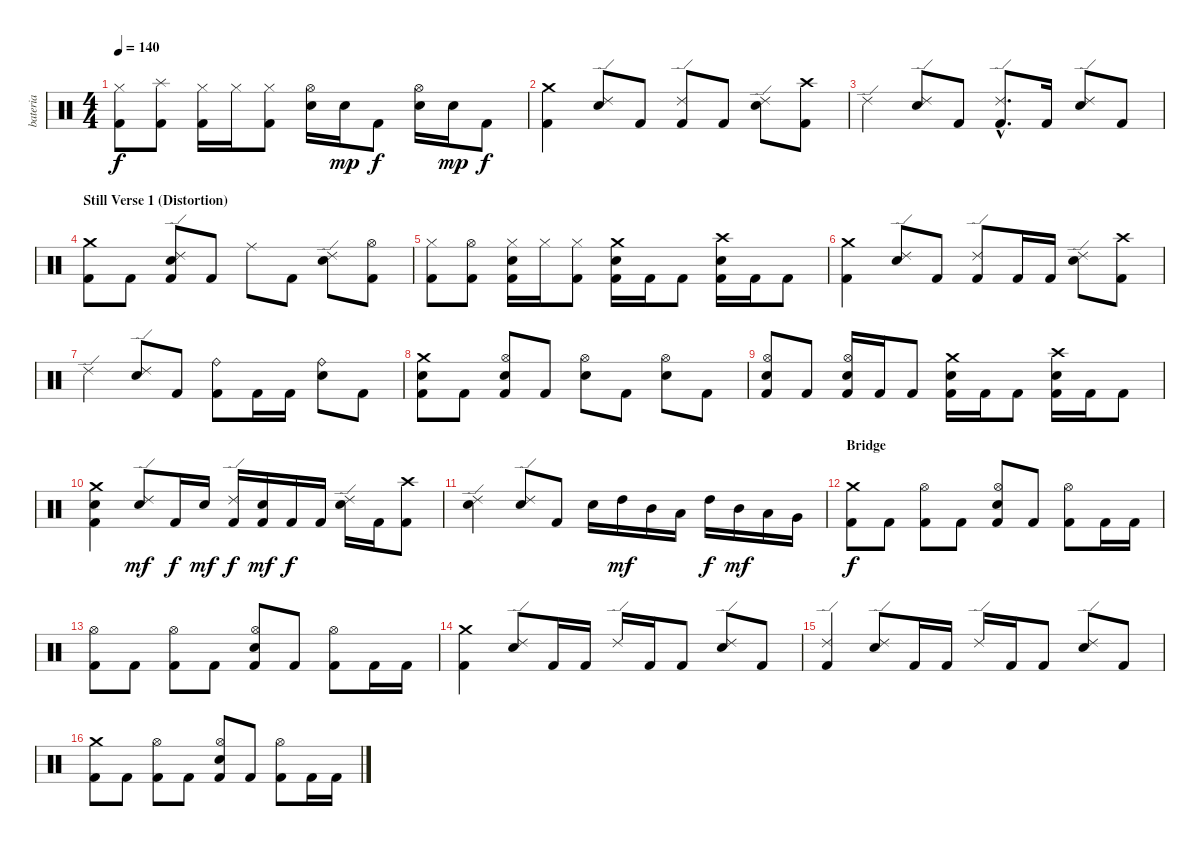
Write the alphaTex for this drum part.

\track ("bateria" "bateria") {instrument percussion}
\staff {score}
\articulation defaults
\ts (4 4)
\tempo 140
\clef neutral
\ks c
("Hi-Hat (closed)" "Kick (hit) 2").8{dy f} ("Splash (hit)" "Kick (hit) 2").8 ("Hi-Hat (closed)" "Kick (hit) 2").16 "Hi-Hat (closed)".16 ("Hi-Hat (closed)" "Kick (hit) 2").8 ("Hi-Hat (open)" "Electric Snare (hit)").16 "Electric Snare (hit)".16{dy mp} "Kick (hit) 2".8{dy f} ("Hi-Hat (open)" "Electric Snare (hit)").16 "Electric Snare (hit)".16{dy mp} "Kick (hit) 2".8{dy f} |
("Crash medium (hit)" "Kick (hit) 2").4 ("Ride (edge) 2" "Electric Snare (hit)").8 "Kick (hit) 2".8 ("Ride (edge) 2" "Kick (hit) 2").8 "Kick (hit) 2".8 ("Ride (edge) 2" "Electric Snare (hit)").8 ("Crash high (hit)" "Kick (hit) 2").8 |
"Ride (edge) 2".4 ("Ride (edge) 2" "Electric Snare (hit)").8 "Kick (hit) 2".8 ("Ride (edge) 2"{hac} "Kick (hit) 2"{hac}).8{d} "Kick (hit) 2".16 ("Ride (edge) 2" "Electric Snare (hit)").8 "Kick (hit) 2".8 |
\section ("" "Still Verse 1 (Distortion)")
("Crash medium (hit)" "Kick (hit) 2").8 "Kick (hit) 2".8 ("Ride (edge) 2" "Electric Snare (hit)" "Kick (hit) 2").8 "Kick (hit) 2".8 "Ride (middle)".8 "Kick (hit) 2".8 ("Ride (edge) 2" "Electric Snare (hit)").8 ("Hi-Hat (open)" "Kick (hit) 2").8 |
("Hi-Hat (closed)" "Kick (hit) 2").8 ("Hi-Hat (open)" "Kick (hit) 2").8 ("Hi-Hat (closed)" "Electric Snare (hit)" "Kick (hit) 2").16 "Hi-Hat (closed)".16 ("Hi-Hat (closed)" "Kick (hit) 2").8 ("Crash medium (hit)" "Electric Snare (hit)" "Kick (hit) 2").16 "Kick (hit) 2".16 "Kick (hit) 2".8 ("Crash high (hit)" "Electric Snare (hit)" "Kick (hit) 2").16 "Kick (hit) 2".16 "Kick (hit) 2".8 |
("Crash medium (hit)" "Kick (hit) 2").4 ("Ride (edge) 2" "Electric Snare (hit)").8 "Kick (hit) 2".8 ("Ride (edge) 2" "Kick (hit) 2").8 "Kick (hit) 2".16 "Kick (hit) 2".16 ("Ride (edge) 2" "Electric Snare (hit)").8 ("Crash high (hit)" "Kick (hit) 2").8 |
"Ride (edge) 2".4 ("Ride (edge) 2" "Electric Snare (hit)").8 "Kick (hit) 2".8 ("Ride (bell)" "Kick (hit) 2").8 "Kick (hit) 2".16 "Kick (hit) 2".16 ("Ride (bell)" "Electric Snare (hit)").8 "Kick (hit) 2".8 |
("Crash medium (hit)" "Electric Snare (hit)" "Kick (hit) 2").8 "Kick (hit) 2".8 ("Hi-Hat (open)" "Electric Snare (hit)" "Kick (hit) 2").8 "Kick (hit) 2".8 ("Hi-Hat (open)" "Electric Snare (hit)").8 "Kick (hit) 2".8 ("Hi-Hat (open)" "Electric Snare (hit)").8 "Kick (hit) 2".8 |
("Hi-Hat (open)" "Electric Snare (hit)" "Kick (hit) 2").8 "Kick (hit) 2".8 ("Hi-Hat (open)" "Electric Snare (hit)" "Kick (hit) 2").16 "Kick (hit) 2".16 "Kick (hit) 2".8 ("Crash medium (hit)" "Electric Snare (hit)" "Kick (hit) 2").16 "Kick (hit) 2".16 "Kick (hit) 2".8 ("Crash high (hit)" "Electric Snare (hit)" "Kick (hit) 2").16 "Kick (hit) 2".16 "Kick (hit) 2".8 |
("Crash medium (hit)" "Electric Snare (hit)" "Kick (hit) 2").4 ("Ride (edge) 2" "Electric Snare (hit)").8{dy mf} "Kick (hit) 2".16{dy f} "Electric Snare (hit)".16{dy mf} ("Ride (edge) 2" "Kick (hit) 2").16{dy f} ("Electric Snare (hit)" "Kick (hit) 2").16{dy mf} "Kick (hit) 2".16{dy f} "Kick (hit) 2".16 ("Ride (edge) 2" "Electric Snare (hit)").16 "Kick (hit) 2".16 ("Crash high (hit)" "Kick (hit) 2").8 |
("Ride (edge) 2" "Electric Snare (hit)").4 ("Ride (edge) 2" "Electric Snare (hit)").8 "Kick (hit) 2".8 "Electric Snare (hit)".16 "High Tom (hit)".16{dy mf} "Mid Tom (hit)".16 "Low Tom (hit)".16 "High Tom (hit)".16{dy f} "Mid Tom (hit)".16{dy mf} "Low Tom (hit)".16 "Very Low Tom (hit)".16 |
\section ("" "Bridge")
("Crash medium (hit)" "Kick (hit) 2").8{dy f} "Kick (hit) 2".8 ("Hi-Hat (open)" "Kick (hit) 2").8 "Kick (hit) 2".8 ("Hi-Hat (open)" "Electric Snare (hit)" "Kick (hit) 2").8 "Kick (hit) 2".8 ("Hi-Hat (open)" "Kick (hit) 2").8 "Kick (hit) 2".16 "Kick (hit) 2".16 |
("Hi-Hat (open)" "Kick (hit) 2").8 "Kick (hit) 2".8 ("Hi-Hat (open)" "Kick (hit) 2").8 "Kick (hit) 2".8 ("Hi-Hat (open)" "Electric Snare (hit)" "Kick (hit) 2").8 "Kick (hit) 2".8 ("Hi-Hat (open)" "Kick (hit) 2").8 "Kick (hit) 2".16 "Kick (hit) 2".16 |
("Crash medium (hit)" "Kick (hit) 2").4 ("Ride (edge) 2" "Electric Snare (hit)").8 "Kick (hit) 2".16 "Kick (hit) 2".16 "Ride (edge) 2".16 "Kick (hit) 2".16 "Kick (hit) 2".8 ("Ride (edge) 2" "Electric Snare (hit)").8 "Kick (hit) 2".8 |
("Ride (edge) 2" "Kick (hit) 2").4 ("Ride (edge) 2" "Electric Snare (hit)").8 "Kick (hit) 2".16 "Kick (hit) 2".16 "Ride (edge) 2".16 "Kick (hit) 2".16 "Kick (hit) 2".8 ("Ride (edge) 2" "Electric Snare (hit)").8 "Kick (hit) 2".8 |
("Crash medium (hit)" "Kick (hit) 2").8 "Kick (hit) 2".8 ("Hi-Hat (open)" "Kick (hit) 2").8 "Kick (hit) 2".8 ("Hi-Hat (open)" "Electric Snare (hit)" "Kick (hit) 2").8 "Kick (hit) 2".8 ("Hi-Hat (open)" "Kick (hit) 2").8 "Kick (hit) 2".16 "Kick (hit) 2".16
